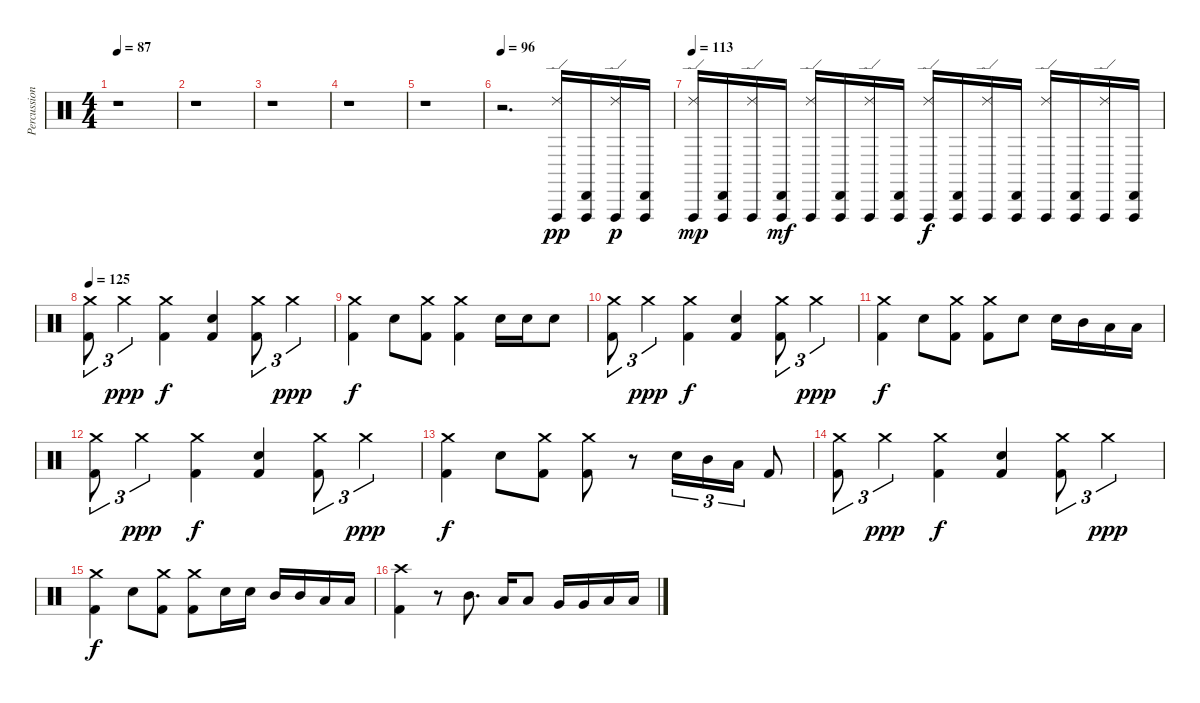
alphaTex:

\track ("Percussion" "Percussion") {instrument percussion}
\staff {score}
\articulation defaults
\ts (4 4)
\tempo 87
\clef neutral
\ks c
r.1{dy f} |
r.1 |
r.1 |
r.1 |
r.1 |
\tempo 96
r.2{d} ("Vibraslap (hit)" "Ride (edge) 2").16{dy pp} ("Vibraslap (hit)" "Cabasa (hit)").16 ("Vibraslap (hit)" "Ride (edge) 2").16{dy p} ("Vibraslap (hit)" "Cabasa (hit)").16 |
\tempo 113
("Vibraslap (hit)" "Ride (edge) 2").16{dy mp} ("Vibraslap (hit)" "Cabasa (hit)").16 ("Vibraslap (hit)" "Ride (edge) 2").16 ("Vibraslap (hit)" "Cabasa (hit)").16{dy mf} ("Vibraslap (hit)" "Ride (edge) 2").16 ("Vibraslap (hit)" "Cabasa (hit)").16 ("Vibraslap (hit)" "Ride (edge) 2").16 ("Vibraslap (hit)" "Cabasa (hit)").16 ("Vibraslap (hit)" "Ride (edge) 2").16{dy f} ("Vibraslap (hit)" "Cabasa (hit)").16 ("Vibraslap (hit)" "Ride (edge) 2").16 ("Vibraslap (hit)" "Cabasa (hit)").16 ("Vibraslap (hit)" "Ride (edge) 2").16 ("Vibraslap (hit)" "Cabasa (hit)").16 ("Vibraslap (hit)" "Ride (edge) 2").16 ("Vibraslap (hit)" "Cabasa (hit)").16 |
\tempo 125
("Kick (hit) 2" "Crash medium (hit)").8{tu (3 2)} "Crash medium (hit)".4{tu (3 2) dy ppp} ("Kick (hit) 2" "Crash medium (hit)").4{dy f} ("Kick (hit) 2" "Electric Snare (hit)").4 ("Kick (hit) 2" "Crash medium (hit)").8{tu (3 2)} "Crash medium (hit)".4{tu (3 2) dy ppp} |
("Kick (hit) 2" "Crash medium (hit)").4{dy f} "Electric Snare (hit)".8 ("Kick (hit) 2" "Crash medium (hit)").8 ("Kick (hit) 2" "Crash medium (hit)").4 "Electric Snare (hit)".16 "Electric Snare (hit)".16 "Electric Snare (hit)".8 |
("Kick (hit) 2" "Crash medium (hit)").8{tu (3 2)} "Crash medium (hit)".4{tu (3 2) dy ppp} ("Kick (hit) 2" "Crash medium (hit)").4{dy f} ("Kick (hit) 2" "Electric Snare (hit)").4 ("Kick (hit) 2" "Crash medium (hit)").8{tu (3 2)} "Crash medium (hit)".4{tu (3 2) dy ppp} |
("Kick (hit) 2" "Crash medium (hit)").4{dy f} "Electric Snare (hit)".8 ("Kick (hit) 2" "Crash medium (hit)").8 ("Kick (hit) 2" "Crash medium (hit)").8 "Electric Snare (hit)".8 "Electric Snare (hit)".16 "Mid Tom (hit)".16 "Low Tom (hit)".16 "Low Tom (hit)".16 |
("Kick (hit) 2" "Crash medium (hit)").8{tu (3 2)} "Crash medium (hit)".4{tu (3 2) dy ppp} ("Kick (hit) 2" "Crash medium (hit)").4{dy f} ("Kick (hit) 2" "Electric Snare (hit)").4 ("Kick (hit) 2" "Crash medium (hit)").8{tu (3 2)} "Crash medium (hit)".4{tu (3 2) dy ppp} |
("Kick (hit) 2" "Crash medium (hit)").4{dy f} "Electric Snare (hit)".8 ("Kick (hit) 2" "Crash medium (hit)").8 ("Kick (hit) 2" "Crash medium (hit)").8 r.8 "Electric Snare (hit)".16{tu (3 2)} "Mid Tom (hit)".16{tu (3 2)} "Low Tom (hit)".16{tu (3 2)} "Kick (hit) 2".8 |
("Kick (hit) 2" "Crash medium (hit)").8{tu (3 2)} "Crash medium (hit)".4{tu (3 2) dy ppp} ("Kick (hit) 2" "Crash medium (hit)").4{dy f} ("Kick (hit) 2" "Electric Snare (hit)").4 ("Kick (hit) 2" "Crash medium (hit)").8{tu (3 2)} "Crash medium (hit)".4{tu (3 2) dy ppp} |
("Kick (hit) 2" "Crash medium (hit)").4{dy f} "Electric Snare (hit)".8 ("Kick (hit) 2" "Crash medium (hit)").8 ("Kick (hit) 2" "Crash medium (hit)").8 "Electric Snare (hit)".16 "Electric Snare (hit)".16 "Mid Tom (hit)".16 "Mid Tom (hit)".16 "Low Tom (hit)".16 "Low Tom (hit)".16 |
("Kick (hit) 2" "Crash high (hit)").4 r.8 "Mid Tom (hit)".8{d} "Low Tom (hit)".16 "Low Tom (hit)".8 "Very Low Tom (hit)".16 "Very Low Tom (hit)".16 "Low Floor Tom (hit)".16 "Low Floor Tom (hit)".16
